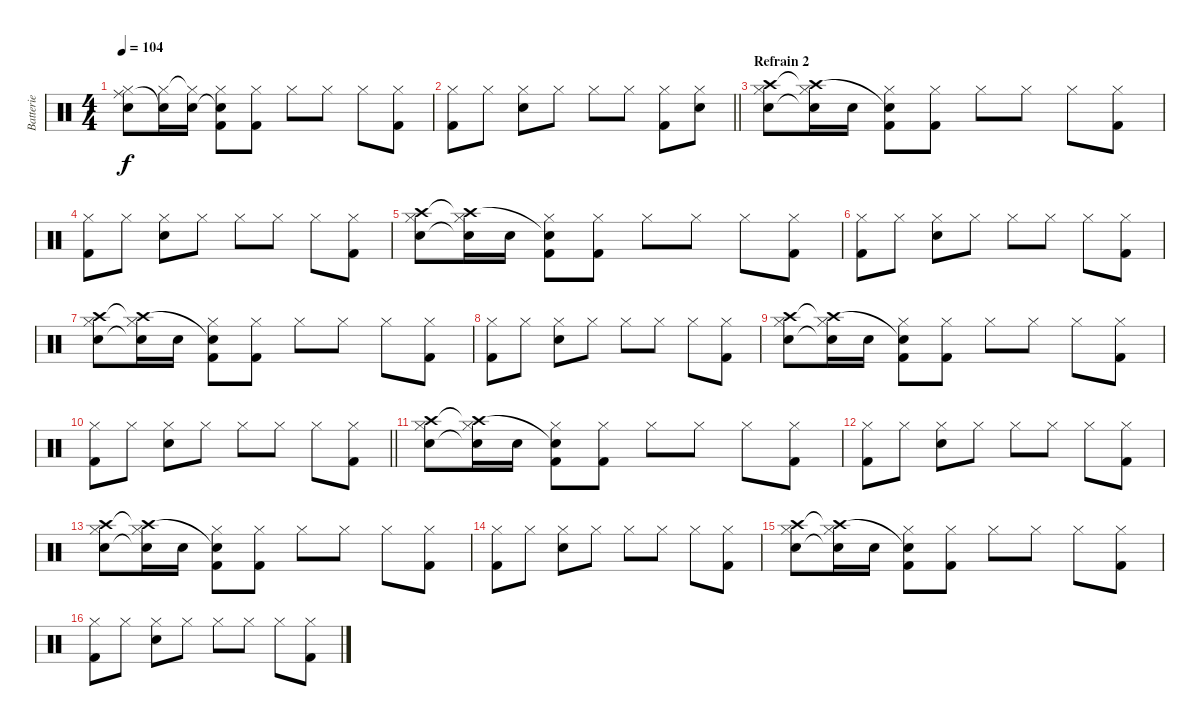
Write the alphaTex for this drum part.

\track ("Batterie" "Batterie") {instrument percussion}
\staff {score}
\articulation defaults
\ts (4 4)
\tempo 104
\clef neutral
\ks c
("Hi-Hat (closed)" "Ride (middle)"{t} "Electric Snare (hit)").8{dy f} ("Hi-Hat (closed)" "Electric Snare (hit)"{t}).16 ("Hi-Hat (closed)"{t} "Electric Snare (hit)").16 ("Hi-Hat (closed)" "Snare (hit) 2"{t} "Kick (hit) 2").8 ("Hi-Hat (closed)" "Kick (hit) 2").8 "Hi-Hat (closed)".8 "Hi-Hat (closed)".8 "Hi-Hat (closed)".8 ("Hi-Hat (closed)" "Kick (hit) 2").8 |
\barLineRight lightlight
("Hi-Hat (closed)" "Kick (hit) 2").8 "Hi-Hat (closed)".8 ("Hi-Hat (closed)" "Electric Snare (hit)").8 "Hi-Hat (closed)".8 "Hi-Hat (closed)".8 "Hi-Hat (closed)".8 ("Hi-Hat (closed)" "Kick (hit) 2").8 ("Hi-Hat (closed)" "Electric Snare (hit)").8 |
\section ("" "Refrain 2")
("Hi-Hat (closed)" "Crash high (hit)" "Electric Snare (hit)").8 ("Hi-Hat (closed)" "Crash high (hit)"{t} "Electric Snare (hit)"{t}).16 "Electric Snare (hit)".16 ("Hi-Hat (closed)" "Snare (hit) 2"{t} "Kick (hit) 2").8 ("Hi-Hat (closed)" "Kick (hit) 2").8 "Hi-Hat (closed)".8 "Hi-Hat (closed)".8 "Hi-Hat (closed)".8 ("Hi-Hat (closed)" "Kick (hit) 2").8 |
("Hi-Hat (closed)" "Kick (hit) 2").8 "Hi-Hat (closed)".8 ("Hi-Hat (closed)" "Electric Snare (hit)").8 "Hi-Hat (closed)".8 "Hi-Hat (closed)".8 "Hi-Hat (closed)".8 "Hi-Hat (closed)".8 ("Hi-Hat (closed)" "Kick (hit) 2").8 |
("Hi-Hat (closed)" "Crash high (hit)" "Electric Snare (hit)").8 ("Hi-Hat (closed)" "Crash high (hit)"{t} "Electric Snare (hit)"{t}).16 "Electric Snare (hit)".16 ("Hi-Hat (closed)" "Snare (hit) 2"{t} "Kick (hit) 2").8 ("Hi-Hat (closed)" "Kick (hit) 2").8 "Hi-Hat (closed)".8 "Hi-Hat (closed)".8 "Hi-Hat (closed)".8 ("Hi-Hat (closed)" "Kick (hit) 2").8 |
("Hi-Hat (closed)" "Kick (hit) 2").8 "Hi-Hat (closed)".8 ("Hi-Hat (closed)" "Electric Snare (hit)").8 "Hi-Hat (closed)".8 "Hi-Hat (closed)".8 "Hi-Hat (closed)".8 "Hi-Hat (closed)".8 ("Hi-Hat (closed)" "Kick (hit) 2").8 |
("Hi-Hat (closed)" "Crash high (hit)" "Electric Snare (hit)").8 ("Hi-Hat (closed)" "Crash high (hit)"{t} "Electric Snare (hit)"{t}).16 "Electric Snare (hit)".16 ("Hi-Hat (closed)" "Snare (hit) 2"{t} "Kick (hit) 2").8 ("Hi-Hat (closed)" "Kick (hit) 2").8 "Hi-Hat (closed)".8 "Hi-Hat (closed)".8 "Hi-Hat (closed)".8 ("Hi-Hat (closed)" "Kick (hit) 2").8 |
("Hi-Hat (closed)" "Kick (hit) 2").8 "Hi-Hat (closed)".8 ("Hi-Hat (closed)" "Electric Snare (hit)").8 "Hi-Hat (closed)".8 "Hi-Hat (closed)".8 "Hi-Hat (closed)".8 "Hi-Hat (closed)".8 ("Hi-Hat (closed)" "Kick (hit) 2").8 |
("Hi-Hat (closed)" "Crash high (hit)" "Electric Snare (hit)").8 ("Hi-Hat (closed)" "Crash high (hit)"{t} "Electric Snare (hit)"{t}).16 "Electric Snare (hit)".16 ("Hi-Hat (closed)" "Snare (hit) 2"{t} "Kick (hit) 2").8 ("Hi-Hat (closed)" "Kick (hit) 2").8 "Hi-Hat (closed)".8 "Hi-Hat (closed)".8 "Hi-Hat (closed)".8 ("Hi-Hat (closed)" "Kick (hit) 2").8 |
\barLineRight lightlight
("Hi-Hat (closed)" "Kick (hit) 2").8 "Hi-Hat (closed)".8 ("Hi-Hat (closed)" "Electric Snare (hit)").8 "Hi-Hat (closed)".8 "Hi-Hat (closed)".8 "Hi-Hat (closed)".8 "Hi-Hat (closed)".8 ("Hi-Hat (closed)" "Kick (hit) 2").8 |
("Hi-Hat (closed)" "Crash high (hit)" "Electric Snare (hit)").8 ("Hi-Hat (closed)" "Crash high (hit)"{t} "Electric Snare (hit)"{t}).16 "Electric Snare (hit)".16 ("Hi-Hat (closed)" "Snare (hit) 2"{t} "Kick (hit) 2").8 ("Hi-Hat (closed)" "Kick (hit) 2").8 "Hi-Hat (closed)".8 "Hi-Hat (closed)".8 "Hi-Hat (closed)".8 ("Hi-Hat (closed)" "Kick (hit) 2").8 |
("Hi-Hat (closed)" "Kick (hit) 2").8 "Hi-Hat (closed)".8 ("Hi-Hat (closed)" "Electric Snare (hit)").8 "Hi-Hat (closed)".8 "Hi-Hat (closed)".8 "Hi-Hat (closed)".8 "Hi-Hat (closed)".8 ("Hi-Hat (closed)" "Kick (hit) 2").8 |
("Hi-Hat (closed)" "Crash high (hit)" "Electric Snare (hit)").8 ("Hi-Hat (closed)" "Crash high (hit)"{t} "Electric Snare (hit)"{t}).16 "Electric Snare (hit)".16 ("Hi-Hat (closed)" "Snare (hit) 2"{t} "Kick (hit) 2").8 ("Hi-Hat (closed)" "Kick (hit) 2").8 "Hi-Hat (closed)".8 "Hi-Hat (closed)".8 "Hi-Hat (closed)".8 ("Hi-Hat (closed)" "Kick (hit) 2").8 |
("Hi-Hat (closed)" "Kick (hit) 2").8 "Hi-Hat (closed)".8 ("Hi-Hat (closed)" "Electric Snare (hit)").8 "Hi-Hat (closed)".8 "Hi-Hat (closed)".8 "Hi-Hat (closed)".8 "Hi-Hat (closed)".8 ("Hi-Hat (closed)" "Kick (hit) 2").8 |
("Hi-Hat (closed)" "Crash high (hit)" "Electric Snare (hit)").8 ("Hi-Hat (closed)" "Crash high (hit)"{t} "Electric Snare (hit)"{t}).16 "Electric Snare (hit)".16 ("Hi-Hat (closed)" "Snare (hit) 2"{t} "Kick (hit) 2").8 ("Hi-Hat (closed)" "Kick (hit) 2").8 "Hi-Hat (closed)".8 "Hi-Hat (closed)".8 "Hi-Hat (closed)".8 ("Hi-Hat (closed)" "Kick (hit) 2").8 |
("Hi-Hat (closed)" "Kick (hit) 2").8 "Hi-Hat (closed)".8 ("Hi-Hat (closed)" "Electric Snare (hit)").8 "Hi-Hat (closed)".8 "Hi-Hat (closed)".8 "Hi-Hat (closed)".8 "Hi-Hat (closed)".8 ("Hi-Hat (closed)" "Kick (hit) 2").8
